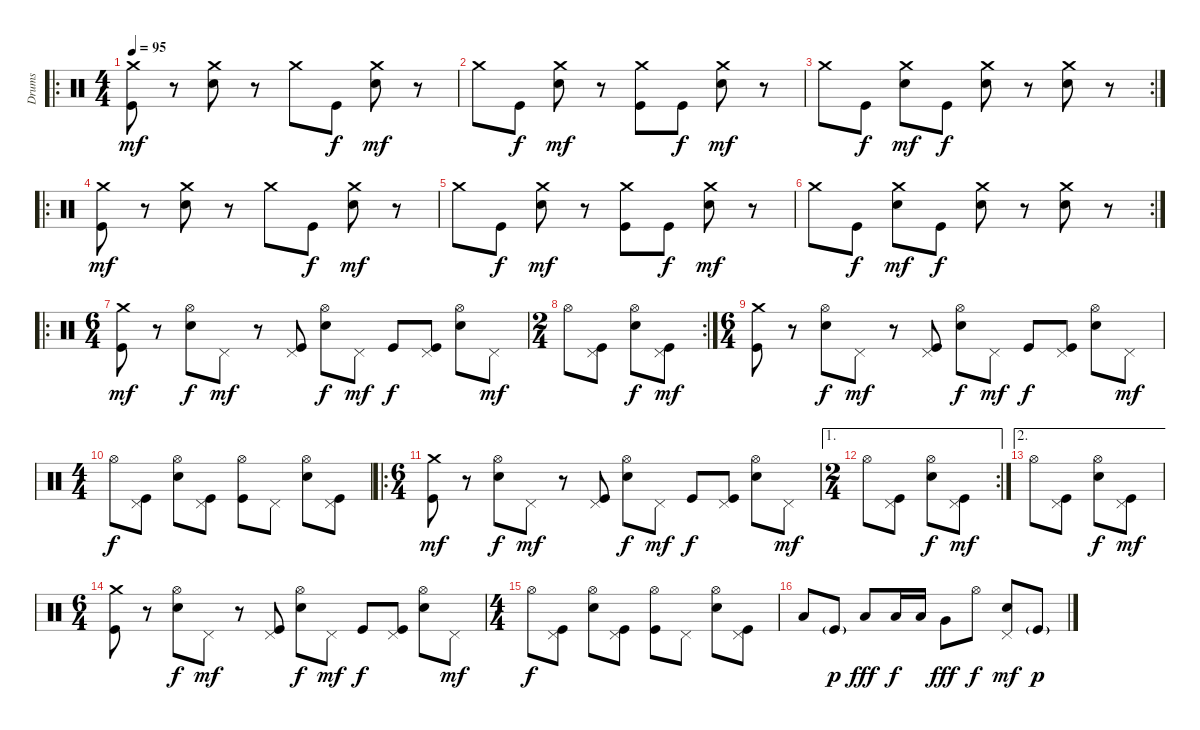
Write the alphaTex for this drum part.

\track ("Drums" "Drums") {instrument percussion}
\staff {score}
\articulation defaults
\ro
\ts (4 4)
\tempo 95
\clef neutral
\ks c
("Crash medium (hit)" "Kick (hit)").8{dy mf} r.8 ("Crash medium (hit)" "Snare (hit) 2").8 r.8 "Crash medium (hit)".8 "Kick (hit)".8{dy f} ("Crash medium (hit)" "Snare (hit) 2").8{dy mf} r.8 |
"Crash medium (hit)".8 "Kick (hit)".8{dy f} ("Crash medium (hit)" "Snare (hit) 2").8{dy mf} r.8 ("Crash medium (hit)" "Kick (hit)").8 "Kick (hit)".8{dy f} ("Crash medium (hit)" "Snare (hit) 2").8{dy mf} r.8 |
\rc 2 "Crash medium (hit)".8 "Kick (hit)".8{dy f}
("Crash medium (hit)" "Snare (hit) 2").8{dy mf} "Kick (hit)".8{dy f} ("Crash medium (hit)" "Snare (hit) 2").8 r.8 ("Crash medium (hit)" "Snare (hit) 2").8 r.8 |
\ro
("Crash medium (hit)" "Kick (hit)").8{dy mf} r.8 ("Crash medium (hit)" "Snare (hit) 2").8 r.8 "Crash medium (hit)".8 "Kick (hit)".8{dy f} ("Crash medium (hit)" "Snare (hit) 2").8{dy mf} r.8 |
"Crash medium (hit)".8 "Kick (hit)".8{dy f} ("Crash medium (hit)" "Snare (hit) 2").8{dy mf} r.8 ("Crash medium (hit)" "Kick (hit)").8 "Kick (hit)".8{dy f} ("Crash medium (hit)" "Snare (hit) 2").8{dy mf} r.8 |
\rc 2 "Crash medium (hit)".8 "Kick (hit)".8{dy f}
("Crash medium (hit)" "Snare (hit) 2").8{dy mf} "Kick (hit)".8{dy f} ("Crash medium (hit)" "Snare (hit) 2").8 r.8 ("Crash medium (hit)" "Snare (hit) 2").8 r.8 |
\ro
\ts (6 4)
("Crash medium (hit)" "Kick (hit)").8{dy mf} r.8 ("Hi-Hat (open)" "Snare (hit) 2").8{dy f} "Pedal Hi-Hat (hit)".8{dy mf} r.8 ("Pedal Hi-Hat (hit)" "Kick (hit)").8 ("Hi-Hat (open)" "Snare (hit) 2").8{dy f} "Pedal Hi-Hat (hit)".8{dy mf} "Kick (hit)".8{dy f} ("Pedal Hi-Hat (hit)" "Kick (hit)").8 ("Hi-Hat (open)" "Snare (hit) 2").8 "Pedal Hi-Hat (hit)".8{dy mf} |
\rc 2
\ts (2 4)
"Hi-Hat (open)".8 ("Pedal Hi-Hat (hit)" "Kick (hit)").8 ("Hi-Hat (open)" "Snare (hit) 2").8{dy f} ("Pedal Hi-Hat (hit)" "Kick (hit)").8{dy mf} |
\ts (6 4)
("Crash medium (hit)" "Kick (hit)").8 r.8 ("Hi-Hat (open)" "Snare (hit) 2").8{dy f} "Pedal Hi-Hat (hit)".8{dy mf} r.8 ("Pedal Hi-Hat (hit)" "Kick (hit)").8 ("Hi-Hat (open)" "Snare (hit) 2").8{dy f} "Pedal Hi-Hat (hit)".8{dy mf} "Kick (hit)".8{dy f} ("Pedal Hi-Hat (hit)" "Kick (hit)").8 ("Hi-Hat (open)" "Snare (hit) 2").8 "Pedal Hi-Hat (hit)".8{dy mf} |
\ts (4 4)
"Hi-Hat (open)".8{dy f} ("Pedal Hi-Hat (hit)" "Kick (hit)").8 ("Hi-Hat (open)" "Snare (hit) 2").8 ("Pedal Hi-Hat (hit)" "Kick (hit)").8 ("Hi-Hat (open)" "Kick (hit)").8 "Pedal Hi-Hat (hit)".8 ("Hi-Hat (open)" "Snare (hit) 2").8 ("Pedal Hi-Hat (hit)" "Kick (hit)").8 |
\ro
\ts (6 4)
("Crash medium (hit)" "Kick (hit)").8{dy mf} r.8 ("Hi-Hat (open)" "Snare (hit) 2").8{dy f} "Pedal Hi-Hat (hit)".8{dy mf} r.8 ("Pedal Hi-Hat (hit)" "Kick (hit)").8 ("Hi-Hat (open)" "Snare (hit) 2").8{dy f} "Pedal Hi-Hat (hit)".8{dy mf} "Kick (hit)".8{dy f} ("Pedal Hi-Hat (hit)" "Kick (hit)").8 ("Hi-Hat (open)" "Snare (hit) 2").8 "Pedal Hi-Hat (hit)".8{dy mf} |
\ae 1
\rc 2
\ts (2 4)
"Hi-Hat (open)".8 ("Pedal Hi-Hat (hit)" "Kick (hit)").8 ("Hi-Hat (open)" "Snare (hit) 2").8{dy f} ("Pedal Hi-Hat (hit)" "Kick (hit)").8{dy mf} |
\ae 2 "Hi-Hat (open)".8
("Pedal Hi-Hat (hit)" "Kick (hit)").8 ("Hi-Hat (open)" "Snare (hit) 2").8{dy f} ("Pedal Hi-Hat (hit)" "Kick (hit)").8{dy mf} |
\ts (6 4)
("Crash medium (hit)" "Kick (hit)").8 r.8 ("Hi-Hat (open)" "Snare (hit) 2").8{dy f} "Pedal Hi-Hat (hit)".8{dy mf} r.8 ("Pedal Hi-Hat (hit)" "Kick (hit)").8 ("Hi-Hat (open)" "Snare (hit) 2").8{dy f} "Pedal Hi-Hat (hit)".8{dy mf} "Kick (hit)".8{dy f} ("Pedal Hi-Hat (hit)" "Kick (hit)").8 ("Hi-Hat (open)" "Snare (hit) 2").8 "Pedal Hi-Hat (hit)".8{dy mf} |
\ts (4 4)
"Hi-Hat (open)".8{dy f} ("Pedal Hi-Hat (hit)" "Kick (hit)").8 ("Hi-Hat (open)" "Snare (hit) 2").8 ("Pedal Hi-Hat (hit)" "Kick (hit)").8 ("Hi-Hat (open)" "Kick (hit)").8 "Pedal Hi-Hat (hit)".8 ("Hi-Hat (open)" "Snare (hit) 2").8 ("Pedal Hi-Hat (hit)" "Kick (hit)").8 |
"Low Floor Tom (hit)".8 "Kick (hit)"{g}.8{dy p} "Low Tom (hit)".8{dy fff} "Low Tom (hit)".16{dy f} "Low Tom (hit)".16 "Very Low Tom (hit)".8{dy fff} "Hi-Hat (open)".8{dy f} ("Pedal Hi-Hat (hit)" "Snare (hit) 2").8{dy mf} "Kick (hit)"{g}.8{dy p}
